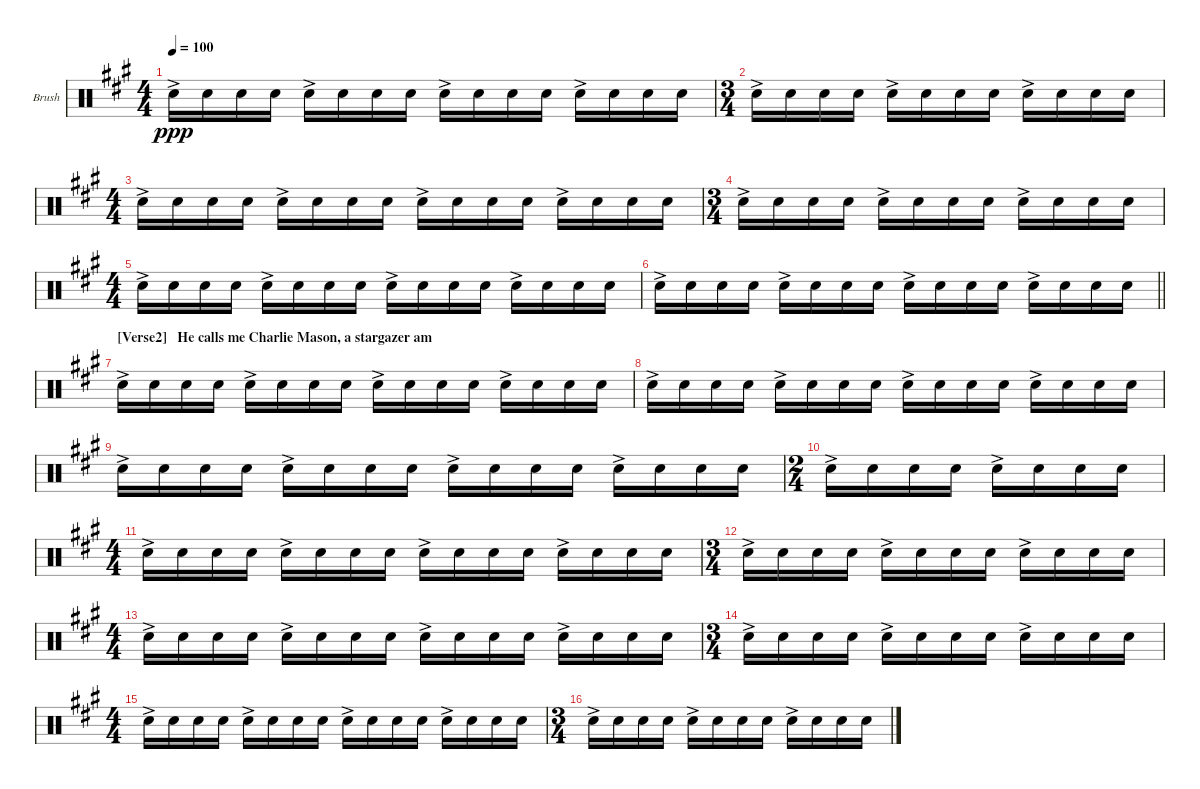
\bracketExtendMode groupsimilarinstruments
\firstSystemTrackNameOrientation horizontal
\otherSystemsTrackNameOrientation horizontal
\track ("Brush Snare" "Brush") {instrument percussion}
\staff {score}
\articulation defaults
\ts (4 4)
\tempo 100
\clef neutral
\ks f#minor "Snare (hit) 2"{ac}.16{dy ppp} "Snare (hit) 2".16 "Snare (hit) 2".16 "Snare (hit) 2".16 "Snare (hit) 2"{ac}.16 "Snare (hit) 2".16 "Snare (hit) 2".16 "Snare (hit) 2".16 "Snare (hit) 2"{ac}.16 "Snare (hit) 2".16 "Snare (hit) 2".16 "Snare (hit) 2".16 "Snare (hit) 2"{ac}.16 "Snare (hit) 2".16 "Snare (hit) 2".16 "Snare (hit) 2".16
|
\ts (3 4)
"Snare (hit) 2"{ac}.16 "Snare (hit) 2".16 "Snare (hit) 2".16 "Snare (hit) 2".16 "Snare (hit) 2"{ac}.16 "Snare (hit) 2".16 "Snare (hit) 2".16 "Snare (hit) 2".16 "Snare (hit) 2"{ac}.16 "Snare (hit) 2".16 "Snare (hit) 2".16 "Snare (hit) 2".16 |
\ts (4 4)
"Snare (hit) 2"{ac}.16 "Snare (hit) 2".16 "Snare (hit) 2".16 "Snare (hit) 2".16 "Snare (hit) 2"{ac}.16 "Snare (hit) 2".16 "Snare (hit) 2".16 "Snare (hit) 2".16 "Snare (hit) 2"{ac}.16 "Snare (hit) 2".16 "Snare (hit) 2".16 "Snare (hit) 2".16 "Snare (hit) 2"{ac}.16 "Snare (hit) 2".16 "Snare (hit) 2".16 "Snare (hit) 2".16 |
\ts (3 4)
"Snare (hit) 2"{ac}.16 "Snare (hit) 2".16 "Snare (hit) 2".16 "Snare (hit) 2".16 "Snare (hit) 2"{ac}.16 "Snare (hit) 2".16 "Snare (hit) 2".16 "Snare (hit) 2".16 "Snare (hit) 2"{ac}.16 "Snare (hit) 2".16 "Snare (hit) 2".16 "Snare (hit) 2".16 |
\ts (4 4)
"Snare (hit) 2"{ac}.16 "Snare (hit) 2".16 "Snare (hit) 2".16 "Snare (hit) 2".16 "Snare (hit) 2"{ac}.16 "Snare (hit) 2".16 "Snare (hit) 2".16 "Snare (hit) 2".16 "Snare (hit) 2"{ac}.16 "Snare (hit) 2".16 "Snare (hit) 2".16 "Snare (hit) 2".16 "Snare (hit) 2"{ac}.16 "Snare (hit) 2".16 "Snare (hit) 2".16 "Snare (hit) 2".16 |
\barLineRight lightlight "Snare (hit) 2"{ac}.16 "Snare (hit) 2".16 "Snare (hit) 2".16 "Snare (hit) 2".16 "Snare (hit) 2"{ac}.16 "Snare (hit) 2".16 "Snare (hit) 2".16 "Snare (hit) 2".16 "Snare (hit) 2"{ac}.16 "Snare (hit) 2".16 "Snare (hit) 2".16 "Snare (hit) 2".16 "Snare (hit) 2"{ac}.16 "Snare (hit) 2".16 "Snare (hit) 2".16 "Snare (hit) 2".16
|
\section ("" "[Verse2]   He calls me Charlie Mason, a stargazer am ")
"Snare (hit) 2"{ac}.16 "Snare (hit) 2".16 "Snare (hit) 2".16 "Snare (hit) 2".16 "Snare (hit) 2"{ac}.16 "Snare (hit) 2".16 "Snare (hit) 2".16 "Snare (hit) 2".16 "Snare (hit) 2"{ac}.16 "Snare (hit) 2".16 "Snare (hit) 2".16 "Snare (hit) 2".16 "Snare (hit) 2"{ac}.16 "Snare (hit) 2".16 "Snare (hit) 2".16 "Snare (hit) 2".16 |
"Snare (hit) 2"{ac}.16 "Snare (hit) 2".16 "Snare (hit) 2".16 "Snare (hit) 2".16 "Snare (hit) 2"{ac}.16 "Snare (hit) 2".16 "Snare (hit) 2".16 "Snare (hit) 2".16 "Snare (hit) 2"{ac}.16 "Snare (hit) 2".16 "Snare (hit) 2".16 "Snare (hit) 2".16 "Snare (hit) 2"{ac}.16 "Snare (hit) 2".16 "Snare (hit) 2".16 "Snare (hit) 2".16 |
"Snare (hit) 2"{ac}.16 "Snare (hit) 2".16 "Snare (hit) 2".16 "Snare (hit) 2".16 "Snare (hit) 2"{ac}.16 "Snare (hit) 2".16 "Snare (hit) 2".16 "Snare (hit) 2".16 "Snare (hit) 2"{ac}.16 "Snare (hit) 2".16 "Snare (hit) 2".16 "Snare (hit) 2".16 "Snare (hit) 2"{ac}.16 "Snare (hit) 2".16 "Snare (hit) 2".16 "Snare (hit) 2".16 |
\ts (2 4)
"Snare (hit) 2"{ac}.16 "Snare (hit) 2".16 "Snare (hit) 2".16 "Snare (hit) 2".16 "Snare (hit) 2"{ac}.16 "Snare (hit) 2".16 "Snare (hit) 2".16 "Snare (hit) 2".16 |
\ts (4 4)
"Snare (hit) 2"{ac}.16 "Snare (hit) 2".16 "Snare (hit) 2".16 "Snare (hit) 2".16 "Snare (hit) 2"{ac}.16 "Snare (hit) 2".16 "Snare (hit) 2".16 "Snare (hit) 2".16 "Snare (hit) 2"{ac}.16 "Snare (hit) 2".16 "Snare (hit) 2".16 "Snare (hit) 2".16 "Snare (hit) 2"{ac}.16 "Snare (hit) 2".16 "Snare (hit) 2".16 "Snare (hit) 2".16 |
\ts (3 4)
"Snare (hit) 2"{ac}.16 "Snare (hit) 2".16 "Snare (hit) 2".16 "Snare (hit) 2".16 "Snare (hit) 2"{ac}.16 "Snare (hit) 2".16 "Snare (hit) 2".16 "Snare (hit) 2".16 "Snare (hit) 2"{ac}.16 "Snare (hit) 2".16 "Snare (hit) 2".16 "Snare (hit) 2".16 |
\ts (4 4)
"Snare (hit) 2"{ac}.16 "Snare (hit) 2".16 "Snare (hit) 2".16 "Snare (hit) 2".16 "Snare (hit) 2"{ac}.16 "Snare (hit) 2".16 "Snare (hit) 2".16 "Snare (hit) 2".16 "Snare (hit) 2"{ac}.16 "Snare (hit) 2".16 "Snare (hit) 2".16 "Snare (hit) 2".16 "Snare (hit) 2"{ac}.16 "Snare (hit) 2".16 "Snare (hit) 2".16 "Snare (hit) 2".16 |
\ts (3 4)
"Snare (hit) 2"{ac}.16 "Snare (hit) 2".16 "Snare (hit) 2".16 "Snare (hit) 2".16 "Snare (hit) 2"{ac}.16 "Snare (hit) 2".16 "Snare (hit) 2".16 "Snare (hit) 2".16 "Snare (hit) 2"{ac}.16 "Snare (hit) 2".16 "Snare (hit) 2".16 "Snare (hit) 2".16 |
\ts (4 4)
"Snare (hit) 2"{ac}.16 "Snare (hit) 2".16 "Snare (hit) 2".16 "Snare (hit) 2".16 "Snare (hit) 2"{ac}.16 "Snare (hit) 2".16 "Snare (hit) 2".16 "Snare (hit) 2".16 "Snare (hit) 2"{ac}.16 "Snare (hit) 2".16 "Snare (hit) 2".16 "Snare (hit) 2".16 "Snare (hit) 2"{ac}.16 "Snare (hit) 2".16 "Snare (hit) 2".16 "Snare (hit) 2".16 |
\ts (3 4)
"Snare (hit) 2"{ac}.16 "Snare (hit) 2".16 "Snare (hit) 2".16 "Snare (hit) 2".16 "Snare (hit) 2"{ac}.16 "Snare (hit) 2".16 "Snare (hit) 2".16 "Snare (hit) 2".16 "Snare (hit) 2"{ac}.16 "Snare (hit) 2".16 "Snare (hit) 2".16 "Snare (hit) 2".16
